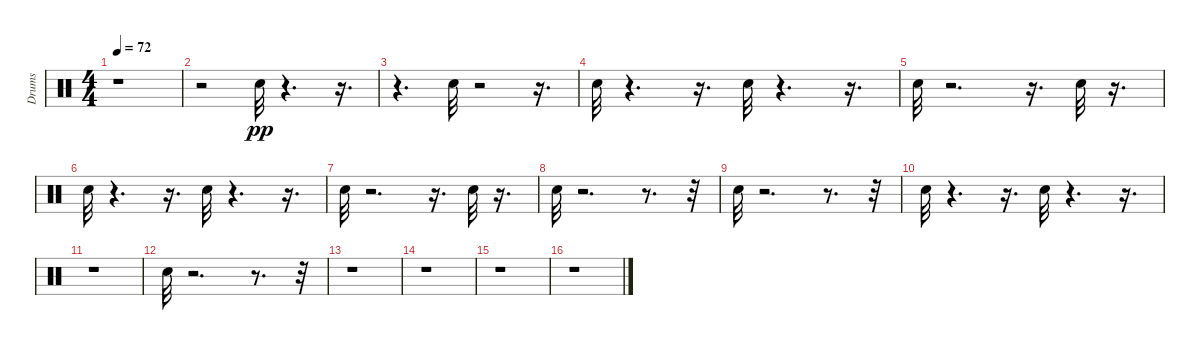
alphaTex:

\track ("Drums" "Drums") {instrument percussion}
\staff {score}
\articulation defaults
\ts (4 4)
\tempo 72
\clef neutral
\ks c
r.1{dy pp} |
r.2 "Snare (hit) 2".32 r.4{d} r.16{d} |
r.4{d} "Snare (hit) 2".32 r.2 r.16{d} |
"Snare (hit) 2".32 r.4{d} r.16{d} "Snare (hit) 2".32 r.4{d} r.16{d} |
"Snare (hit) 2".32 r.2{d} r.16{d} "Snare (hit) 2".32 r.16{d} |
"Snare (hit) 2".32 r.4{d} r.16{d} "Snare (hit) 2".32 r.4{d} r.16{d} |
"Snare (hit) 2".32 r.2{d} r.16{d} "Snare (hit) 2".32 r.16{d} |
"Snare (hit) 2".32 r.2{d} r.8{d} r.32 |
"Snare (hit) 2".32 r.2{d} r.8{d} r.32 |
"Snare (hit) 2".32 r.4{d} r.16{d} "Snare (hit) 2".32 r.4{d} r.16{d} |
r.1 |
"Snare (hit) 2".32 r.2{d} r.8{d} r.32 |
r.1 |
r.1 |
r.1 |
r.1
